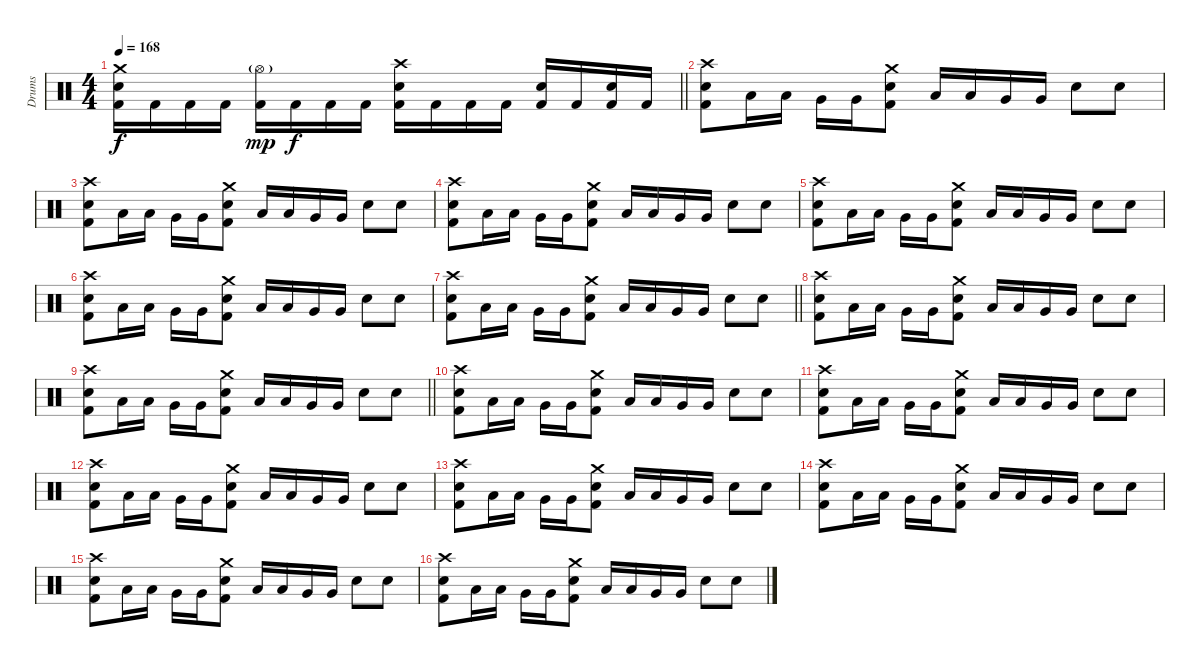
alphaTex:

\track ("Drums" "Drums") {instrument percussion}
\staff {score}
\articulation defaults
\ts (4 4)
\tempo 168
\clef neutral
\barLineRight lightlight
\ks c
("Crash medium (hit)" "Snare (hit) 2" "Kick (hit) 2").16{dy f} "Kick (hit) 2".16 "Kick (hit) 2".16 "Kick (hit) 2".16 ("Hi-Hat (open)"{g} "Kick (hit) 2").16{dy mp} "Kick (hit) 2".16{dy f} "Kick (hit) 2".16 "Kick (hit) 2".16 ("Crash high (hit)" "Snare (hit) 2" "Kick (hit) 2").16 "Kick (hit) 2".16 "Kick (hit) 2".16 "Kick (hit) 2".16 ("Snare (hit) 2" "Kick (hit) 2").16 "Kick (hit) 2".16 ("Snare (hit) 2" "Kick (hit) 2").16 "Kick (hit) 2".16 |
("Crash high (hit)" "Snare (hit) 2" "Kick (hit) 2").8 "Low Tom (hit)".16 "Low Tom (hit)".16 "Very Low Tom (hit)".16 "Very Low Tom (hit)".16 ("Crash medium (hit)" "Snare (hit) 2" "Kick (hit) 2").8 "Low Tom (hit)".16 "Low Tom (hit)".16 "Very Low Tom (hit)".16 "Very Low Tom (hit)".16 "Snare (hit) 2".8 "Snare (hit) 2".8 |
("Crash high (hit)" "Snare (hit) 2" "Kick (hit) 2").8 "Low Tom (hit)".16 "Low Tom (hit)".16 "Very Low Tom (hit)".16 "Very Low Tom (hit)".16 ("Crash medium (hit)" "Snare (hit) 2" "Kick (hit) 2").8 "Low Tom (hit)".16 "Low Tom (hit)".16 "Very Low Tom (hit)".16 "Very Low Tom (hit)".16 "Snare (hit) 2".8 "Snare (hit) 2".8 |
("Crash high (hit)" "Snare (hit) 2" "Kick (hit) 2").8 "Low Tom (hit)".16 "Low Tom (hit)".16 "Very Low Tom (hit)".16 "Very Low Tom (hit)".16 ("Crash medium (hit)" "Snare (hit) 2" "Kick (hit) 2").8 "Low Tom (hit)".16 "Low Tom (hit)".16 "Very Low Tom (hit)".16 "Very Low Tom (hit)".16 "Snare (hit) 2".8 "Snare (hit) 2".8 |
("Crash high (hit)" "Snare (hit) 2" "Kick (hit) 2").8 "Low Tom (hit)".16 "Low Tom (hit)".16 "Very Low Tom (hit)".16 "Very Low Tom (hit)".16 ("Crash medium (hit)" "Snare (hit) 2" "Kick (hit) 2").8 "Low Tom (hit)".16 "Low Tom (hit)".16 "Very Low Tom (hit)".16 "Very Low Tom (hit)".16 "Snare (hit) 2".8 "Snare (hit) 2".8 |
("Crash high (hit)" "Snare (hit) 2" "Kick (hit) 2").8 "Low Tom (hit)".16 "Low Tom (hit)".16 "Very Low Tom (hit)".16 "Very Low Tom (hit)".16 ("Crash medium (hit)" "Snare (hit) 2" "Kick (hit) 2").8 "Low Tom (hit)".16 "Low Tom (hit)".16 "Very Low Tom (hit)".16 "Very Low Tom (hit)".16 "Snare (hit) 2".8 "Snare (hit) 2".8 |
\barLineRight lightlight
("Crash high (hit)" "Snare (hit) 2" "Kick (hit) 2").8 "Low Tom (hit)".16 "Low Tom (hit)".16 "Very Low Tom (hit)".16 "Very Low Tom (hit)".16 ("Crash medium (hit)" "Snare (hit) 2" "Kick (hit) 2").8 "Low Tom (hit)".16 "Low Tom (hit)".16 "Very Low Tom (hit)".16 "Very Low Tom (hit)".16 "Snare (hit) 2".8 "Snare (hit) 2".8 |
("Crash high (hit)" "Snare (hit) 2" "Kick (hit) 2").8 "Low Tom (hit)".16 "Low Tom (hit)".16 "Very Low Tom (hit)".16 "Very Low Tom (hit)".16 ("Crash medium (hit)" "Snare (hit) 2" "Kick (hit) 2").8 "Low Tom (hit)".16 "Low Tom (hit)".16 "Very Low Tom (hit)".16 "Very Low Tom (hit)".16 "Snare (hit) 2".8 "Snare (hit) 2".8 |
\barLineRight lightlight
("Crash high (hit)" "Snare (hit) 2" "Kick (hit) 2").8 "Low Tom (hit)".16 "Low Tom (hit)".16 "Very Low Tom (hit)".16 "Very Low Tom (hit)".16 ("Crash medium (hit)" "Snare (hit) 2" "Kick (hit) 2").8 "Low Tom (hit)".16 "Low Tom (hit)".16 "Very Low Tom (hit)".16 "Very Low Tom (hit)".16 "Snare (hit) 2".8 "Snare (hit) 2".8 |
("Crash high (hit)" "Snare (hit) 2" "Kick (hit) 2").8 "Low Tom (hit)".16 "Low Tom (hit)".16 "Very Low Tom (hit)".16 "Very Low Tom (hit)".16 ("Crash medium (hit)" "Snare (hit) 2" "Kick (hit) 2").8 "Low Tom (hit)".16 "Low Tom (hit)".16 "Very Low Tom (hit)".16 "Very Low Tom (hit)".16 "Snare (hit) 2".8 "Snare (hit) 2".8 |
("Crash high (hit)" "Snare (hit) 2" "Kick (hit) 2").8 "Low Tom (hit)".16 "Low Tom (hit)".16 "Very Low Tom (hit)".16 "Very Low Tom (hit)".16 ("Crash medium (hit)" "Snare (hit) 2" "Kick (hit) 2").8 "Low Tom (hit)".16 "Low Tom (hit)".16 "Very Low Tom (hit)".16 "Very Low Tom (hit)".16 "Snare (hit) 2".8 "Snare (hit) 2".8 |
("Crash high (hit)" "Snare (hit) 2" "Kick (hit) 2").8 "Low Tom (hit)".16 "Low Tom (hit)".16 "Very Low Tom (hit)".16 "Very Low Tom (hit)".16 ("Crash medium (hit)" "Snare (hit) 2" "Kick (hit) 2").8 "Low Tom (hit)".16 "Low Tom (hit)".16 "Very Low Tom (hit)".16 "Very Low Tom (hit)".16 "Snare (hit) 2".8 "Snare (hit) 2".8 |
("Crash high (hit)" "Snare (hit) 2" "Kick (hit) 2").8 "Low Tom (hit)".16 "Low Tom (hit)".16 "Very Low Tom (hit)".16 "Very Low Tom (hit)".16 ("Crash medium (hit)" "Snare (hit) 2" "Kick (hit) 2").8 "Low Tom (hit)".16 "Low Tom (hit)".16 "Very Low Tom (hit)".16 "Very Low Tom (hit)".16 "Snare (hit) 2".8 "Snare (hit) 2".8 |
("Crash high (hit)" "Snare (hit) 2" "Kick (hit) 2").8 "Low Tom (hit)".16 "Low Tom (hit)".16 "Very Low Tom (hit)".16 "Very Low Tom (hit)".16 ("Crash medium (hit)" "Snare (hit) 2" "Kick (hit) 2").8 "Low Tom (hit)".16 "Low Tom (hit)".16 "Very Low Tom (hit)".16 "Very Low Tom (hit)".16 "Snare (hit) 2".8 "Snare (hit) 2".8 |
("Crash high (hit)" "Snare (hit) 2" "Kick (hit) 2").8 "Low Tom (hit)".16 "Low Tom (hit)".16 "Very Low Tom (hit)".16 "Very Low Tom (hit)".16 ("Crash medium (hit)" "Snare (hit) 2" "Kick (hit) 2").8 "Low Tom (hit)".16 "Low Tom (hit)".16 "Very Low Tom (hit)".16 "Very Low Tom (hit)".16 "Snare (hit) 2".8 "Snare (hit) 2".8 |
("Crash high (hit)" "Snare (hit) 2" "Kick (hit) 2").8 "Low Tom (hit)".16 "Low Tom (hit)".16 "Very Low Tom (hit)".16 "Very Low Tom (hit)".16 ("Crash medium (hit)" "Snare (hit) 2" "Kick (hit) 2").8 "Low Tom (hit)".16 "Low Tom (hit)".16 "Very Low Tom (hit)".16 "Very Low Tom (hit)".16 "Snare (hit) 2".8 "Snare (hit) 2".8
